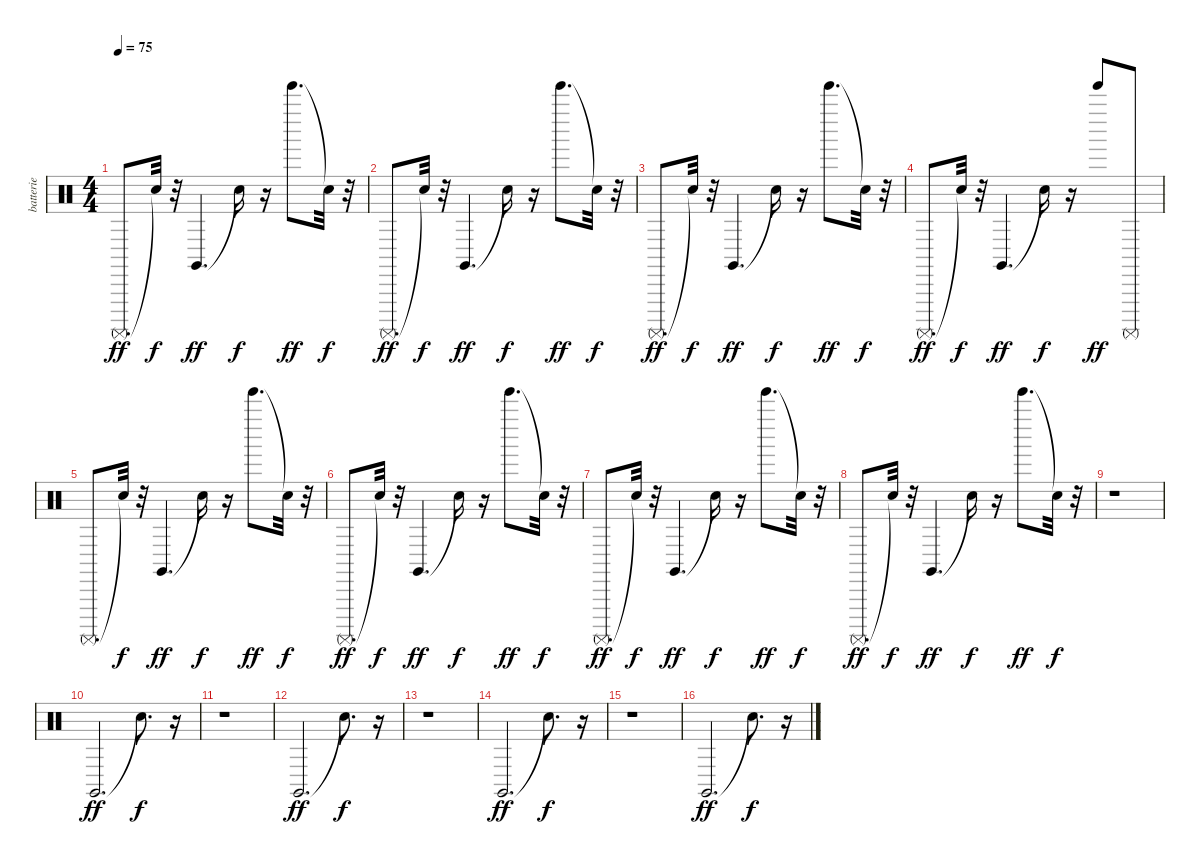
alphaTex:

\track ("batterie" "batterie") {instrument percussion}
\staff {score}
\articulation defaults
\ts (4 4)
\tempo 75
\clef neutral
\ks c "Surdo (mute)".8{d dy ff} "Snare (hit)"{t}.32{dy f}
r.32 "Claves (hit)".4{d dy ff} "Snare (hit)"{t}.16{dy f} r.16 "Tinkle Bell (hit)".8{d dy ff} "Snare (hit)"{t}.32{dy f} r.32 |
"Surdo (mute)".8{d dy ff} "Snare (hit)"{t}.32{dy f} r.32 "Claves (hit)".4{d dy ff} "Snare (hit)"{t}.16{dy f} r.16 "Tinkle Bell (hit)".8{d dy ff} "Snare (hit)"{t}.32{dy f} r.32 |
"Surdo (mute)".8{d dy ff} "Snare (hit)"{t}.32{dy f} r.32 "Claves (hit)".4{d dy ff} "Snare (hit)"{t}.16{dy f} r.16 "Tinkle Bell (hit)".8{d dy ff} "Snare (hit)"{t}.32{dy f} r.32 |
"Surdo (mute)".8{d dy ff} "Snare (hit)"{t}.32{dy f} r.32 "Claves (hit)".4{d dy ff} "Snare (hit)"{t}.16{dy f} r.16 "Tinkle Bell (hit)".8{dy ff} "Surdo (mute)".8 |
"Surdo (mute)".8{d} "Snare (hit)"{t}.32{dy f} r.32 "Claves (hit)".4{d dy ff} "Snare (hit)"{t}.16{dy f} r.16 "Tinkle Bell (hit)".8{d dy ff} "Snare (hit)"{t}.32{dy f} r.32 |
"Surdo (mute)".8{d dy ff} "Snare (hit)"{t}.32{dy f} r.32 "Claves (hit)".4{d dy ff} "Snare (hit)"{t}.16{dy f} r.16 "Tinkle Bell (hit)".8{d dy ff} "Snare (hit)"{t}.32{dy f} r.32 |
"Surdo (mute)".8{d dy ff} "Snare (hit)"{t}.32{dy f} r.32 "Claves (hit)".4{d dy ff} "Snare (hit)"{t}.16{dy f} r.16 "Tinkle Bell (hit)".8{d dy ff} "Snare (hit)"{t}.32{dy f} r.32 |
"Surdo (mute)".8{d dy ff} "Snare (hit)"{t}.32{dy f} r.32 "Claves (hit)".4{d dy ff} "Snare (hit)"{t}.16{dy f} r.16 "Tinkle Bell (hit)".8{d dy ff} "Snare (hit)"{t}.32{dy f} r.32 |
r.1 |
"Claves (hit)".2{d dy ff} "Snare (hit)"{t}.8{d dy f} r.16 |
r.1 |
"Claves (hit)".2{d dy ff} "Snare (hit)"{t}.8{d dy f} r.16 |
r.1 |
"Claves (hit)".2{d dy ff} "Snare (hit)"{t}.8{d dy f} r.16 |
r.1 |
"Claves (hit)".2{d dy ff} "Snare (hit)"{t}.8{d dy f} r.16
